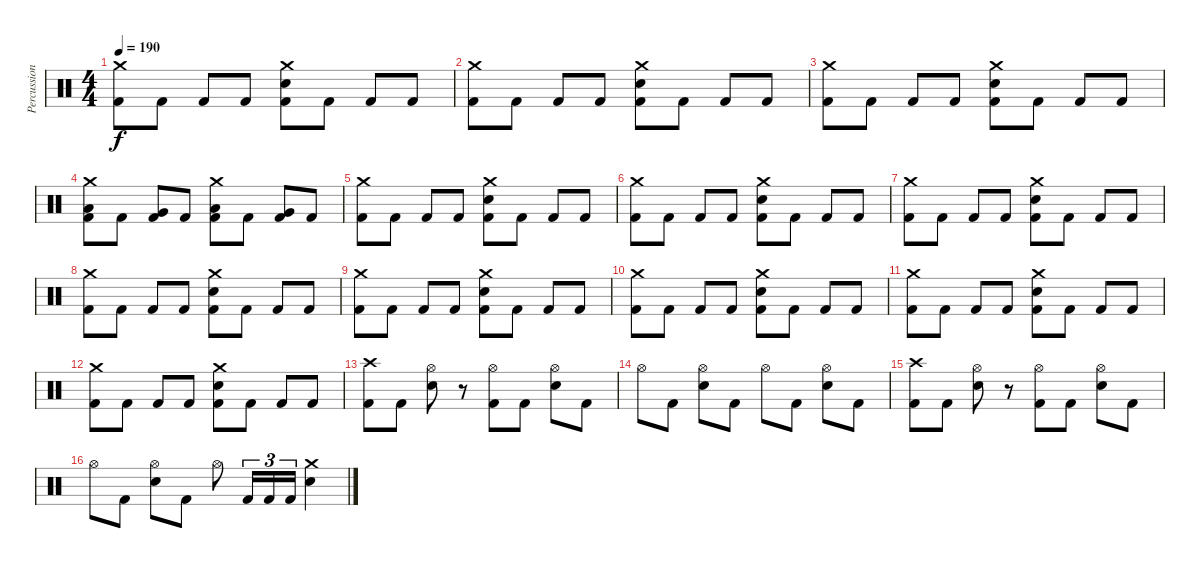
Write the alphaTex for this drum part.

\track ("Percussion" "Percussion") {instrument percussion}
\staff {score}
\articulation defaults
\ts (4 4)
\tempo 190
\clef neutral
\ks c
("Crash medium (hit)" "Kick (hit) 2").8{dy f} "Kick (hit) 2".8 "Kick (hit) 2".8 "Kick (hit) 2".8 ("Crash medium (hit)" "Electric Snare (hit)" "Kick (hit) 2").8 "Kick (hit) 2".8 "Kick (hit) 2".8 "Kick (hit) 2".8 |
("Crash medium (hit)" "Kick (hit) 2").8 "Kick (hit) 2".8 "Kick (hit) 2".8 "Kick (hit) 2".8 ("Crash medium (hit)" "Electric Snare (hit)" "Kick (hit) 2").8 "Kick (hit) 2".8 "Kick (hit) 2".8 "Kick (hit) 2".8 |
("Crash medium (hit)" "Kick (hit) 2").8 "Kick (hit) 2".8 "Kick (hit) 2".8 "Kick (hit) 2".8 ("Crash medium (hit)" "Electric Snare (hit)" "Kick (hit) 2").8 "Kick (hit) 2".8 "Kick (hit) 2".8 "Kick (hit) 2".8 |
("Crash medium (hit)" "Low Tom (hit)" "Kick (hit) 2").8 "Kick (hit) 2".8 ("Very Low Tom (hit)" "Kick (hit) 2").8 "Kick (hit) 2".8 ("Crash medium (hit)" "Low Floor Tom (hit)" "Kick (hit) 2").8 "Kick (hit) 2".8 ("Very Low Tom (hit)" "Kick (hit) 2").8 "Kick (hit) 2".8 |
("Crash medium (hit)" "Kick (hit) 2").8 "Kick (hit) 2".8 "Kick (hit) 2".8 "Kick (hit) 2".8 ("Crash medium (hit)" "Electric Snare (hit)" "Kick (hit) 2").8 "Kick (hit) 2".8 "Kick (hit) 2".8 "Kick (hit) 2".8 |
("Crash medium (hit)" "Kick (hit) 2").8 "Kick (hit) 2".8 "Kick (hit) 2".8 "Kick (hit) 2".8 ("Crash medium (hit)" "Electric Snare (hit)" "Kick (hit) 2").8 "Kick (hit) 2".8 "Kick (hit) 2".8 "Kick (hit) 2".8 |
("Crash medium (hit)" "Kick (hit) 2").8 "Kick (hit) 2".8 "Kick (hit) 2".8 "Kick (hit) 2".8 ("Crash medium (hit)" "Electric Snare (hit)" "Kick (hit) 2").8 "Kick (hit) 2".8 "Kick (hit) 2".8 "Kick (hit) 2".8 |
("Crash medium (hit)" "Kick (hit) 2").8 "Kick (hit) 2".8 "Kick (hit) 2".8 "Kick (hit) 2".8 ("Crash medium (hit)" "Electric Snare (hit)" "Kick (hit) 2").8 "Kick (hit) 2".8 "Kick (hit) 2".8 "Kick (hit) 2".8 |
("Crash medium (hit)" "Kick (hit) 2").8 "Kick (hit) 2".8 "Kick (hit) 2".8 "Kick (hit) 2".8 ("Crash medium (hit)" "Electric Snare (hit)" "Kick (hit) 2").8 "Kick (hit) 2".8 "Kick (hit) 2".8 "Kick (hit) 2".8 |
("Crash medium (hit)" "Kick (hit) 2").8 "Kick (hit) 2".8 "Kick (hit) 2".8 "Kick (hit) 2".8 ("Crash medium (hit)" "Electric Snare (hit)" "Kick (hit) 2").8 "Kick (hit) 2".8 "Kick (hit) 2".8 "Kick (hit) 2".8 |
("Crash medium (hit)" "Kick (hit) 2").8 "Kick (hit) 2".8 "Kick (hit) 2".8 "Kick (hit) 2".8 ("Crash medium (hit)" "Electric Snare (hit)" "Kick (hit) 2").8 "Kick (hit) 2".8 "Kick (hit) 2".8 "Kick (hit) 2".8 |
("Crash medium (hit)" "Kick (hit) 2").8 "Kick (hit) 2".8 "Kick (hit) 2".8 "Kick (hit) 2".8 ("Crash medium (hit)" "Electric Snare (hit)" "Kick (hit) 2").8 "Kick (hit) 2".8 "Kick (hit) 2".8 "Kick (hit) 2".8 |
("Crash high (hit)" "Kick (hit) 2").8 "Kick (hit) 2".8 ("Hi-Hat (open)" "Electric Snare (hit)").8 r.8 ("Hi-Hat (open)" "Kick (hit) 2").8 "Kick (hit) 2".8 ("Hi-Hat (open)" "Electric Snare (hit)").8 "Kick (hit) 2".8 |
"Hi-Hat (open)".8 "Kick (hit) 2".8 ("Hi-Hat (open)" "Electric Snare (hit)").8 "Kick (hit) 2".8 "Hi-Hat (open)".8 "Kick (hit) 2".8 ("Hi-Hat (open)" "Electric Snare (hit)").8 "Kick (hit) 2".8 |
("Crash high (hit)" "Kick (hit) 2").8 "Kick (hit) 2".8 ("Hi-Hat (open)" "Electric Snare (hit)").8 r.8 ("Hi-Hat (open)" "Kick (hit) 2").8 "Kick (hit) 2".8 ("Hi-Hat (open)" "Electric Snare (hit)").8 "Kick (hit) 2".8 |
"Hi-Hat (open)".8 "Kick (hit) 2".8 ("Hi-Hat (open)" "Electric Snare (hit)").8 "Kick (hit) 2".8 "Hi-Hat (open)".8 "Kick (hit) 2".16{tu (3 2)} "Kick (hit) 2".16{tu (3 2)} "Kick (hit) 2".16{tu (3 2)} ("Crash medium (hit)" "Electric Snare (hit)").4
